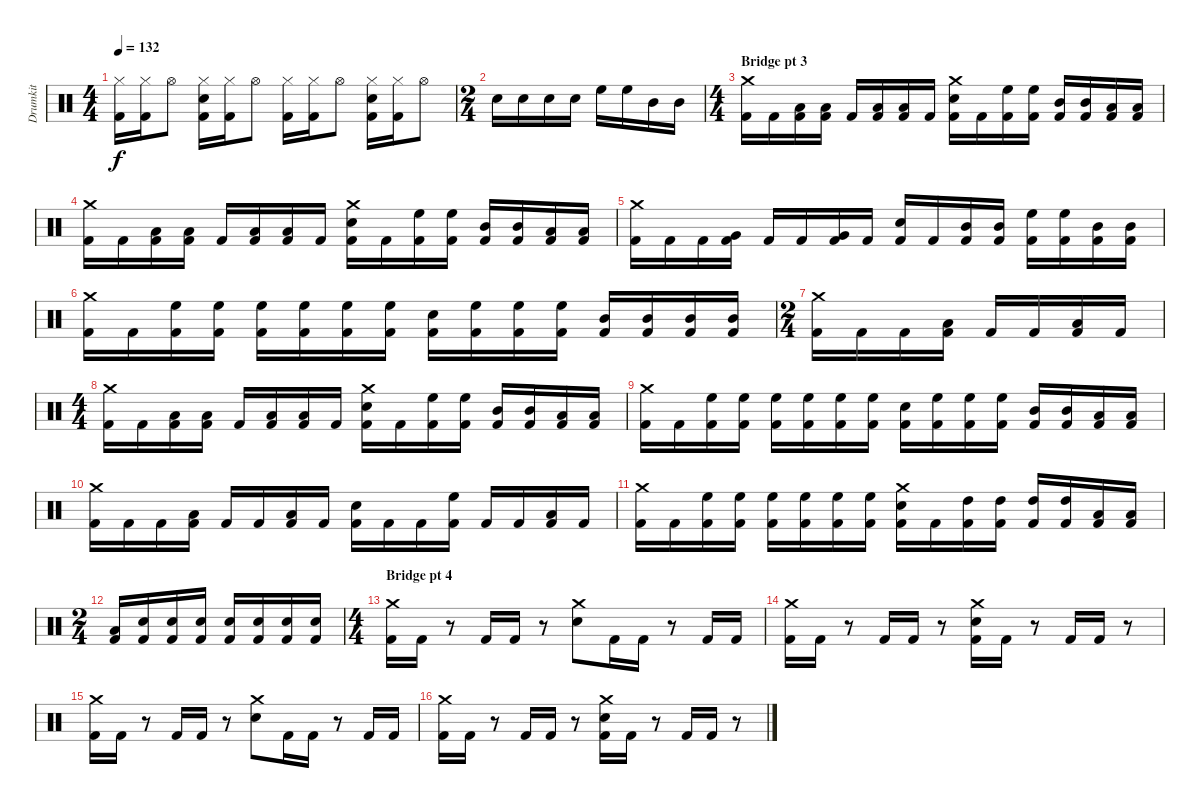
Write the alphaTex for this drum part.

\track ("Drumkit" "Drumkit") {instrument percussion}
\staff {score}
\articulation defaults
\ts (4 4)
\tempo 132
\clef neutral
\ks c
("Hi-Hat (closed)" "Kick (hit) 2").16{dy f} ("Hi-Hat (closed)" "Kick (hit) 2").16 "Hi-Hat (open)".8 ("Hi-Hat (closed)" "Snare (hit) 2" "Kick (hit) 2").16 ("Hi-Hat (closed)" "Kick (hit) 2").16 "Hi-Hat (open)".8 ("Hi-Hat (closed)" "Kick (hit) 2").16 ("Hi-Hat (closed)" "Kick (hit) 2").16 "Hi-Hat (open)".8 ("Hi-Hat (closed)" "Snare (hit) 2" "Kick (hit) 2").16 ("Hi-Hat (closed)" "Kick (hit) 2").16 "Hi-Hat (open)".8 |
\ts (2 4)
"Snare (hit) 2".16 "Snare (hit) 2".16 "Snare (hit) 2".16 "Snare (hit) 2".16 "High Floor Tom (hit)".16 "High Floor Tom (hit)".16 "Mid Tom (hit)".16 "Mid Tom (hit)".16 |
\ts (4 4)
\section ("" "Bridge pt 3")
("Crash medium (hit)" "Kick (hit) 2").16 "Kick (hit) 2".16 ("Low Tom (hit)" "Kick (hit) 2").16 ("Low Tom (hit)" "Kick (hit) 2").16 "Kick (hit) 2".16 ("Low Tom (hit)" "Kick (hit) 2").16 ("Low Tom (hit)" "Kick (hit) 2").16 "Kick (hit) 2".16 ("Crash medium (hit)" "Snare (hit) 2" "Kick (hit) 2").16 "Kick (hit) 2".16 ("High Floor Tom (hit)" "Kick (hit) 2").16 ("High Floor Tom (hit)" "Kick (hit) 2").16 ("Mid Tom (hit)" "Kick (hit) 2").16 ("Mid Tom (hit)" "Kick (hit) 2").16 ("Low Tom (hit)" "Kick (hit) 2").16 ("Low Tom (hit)" "Kick (hit) 2").16 |
("Crash medium (hit)" "Kick (hit) 2").16 "Kick (hit) 2".16 ("Low Tom (hit)" "Kick (hit) 2").16 ("Low Tom (hit)" "Kick (hit) 2").16 "Kick (hit) 2".16 ("Low Tom (hit)" "Kick (hit) 2").16 ("Low Tom (hit)" "Kick (hit) 2").16 "Kick (hit) 2".16 ("Crash medium (hit)" "Snare (hit) 2" "Kick (hit) 2").16 "Kick (hit) 2".16 ("High Floor Tom (hit)" "Kick (hit) 2").16 ("High Floor Tom (hit)" "Kick (hit) 2").16 ("Mid Tom (hit)" "Kick (hit) 2").16 ("Mid Tom (hit)" "Kick (hit) 2").16 ("Low Tom (hit)" "Kick (hit) 2").16 ("Low Tom (hit)" "Kick (hit) 2").16 |
("Crash medium (hit)" "Kick (hit) 2").16 "Kick (hit) 2".16 "Kick (hit) 2".16 ("Very Low Tom (hit)" "Kick (hit) 2").16 "Kick (hit) 2".16 "Kick (hit) 2".16 ("Very Low Tom (hit)" "Kick (hit) 2").16 "Kick (hit) 2".16 ("Snare (hit) 2" "Kick (hit) 2").16 "Kick (hit) 2".16 ("Mid Tom (hit)" "Kick (hit) 2").16 ("Mid Tom (hit)" "Kick (hit) 2").16 ("High Floor Tom (hit)" "Kick (hit) 2").16 ("High Floor Tom (hit)" "Kick (hit) 2").16 ("Mid Tom (hit)" "Kick (hit) 2").16 ("Mid Tom (hit)" "Kick (hit) 2").16 |
("Crash medium (hit)" "Kick (hit) 2").16 "Kick (hit) 2".16 ("High Floor Tom (hit)" "Kick (hit) 2").16 ("High Floor Tom (hit)" "Kick (hit) 2").16 ("High Floor Tom (hit)" "Kick (hit) 2").16 ("High Floor Tom (hit)" "Kick (hit) 2").16 ("High Floor Tom (hit)" "Kick (hit) 2").16 ("High Floor Tom (hit)" "Kick (hit) 2").16 ("Snare (hit) 2" "Kick (hit) 2").16 ("High Floor Tom (hit)" "Kick (hit) 2").16 ("High Floor Tom (hit)" "Kick (hit) 2").16 ("High Floor Tom (hit)" "Kick (hit) 2").16 ("Mid Tom (hit)" "Kick (hit) 2").16 ("Mid Tom (hit)" "Kick (hit) 2").16 ("Mid Tom (hit)" "Kick (hit) 2").16 ("Mid Tom (hit)" "Kick (hit) 2").16 |
\ts (2 4)
("Crash medium (hit)" "Kick (hit) 2").16 "Kick (hit) 2".16 "Kick (hit) 2".16 ("Low Tom (hit)" "Kick (hit) 2").16 "Kick (hit) 2".16 "Kick (hit) 2".16 ("Low Tom (hit)" "Kick (hit) 2").16 "Kick (hit) 2".16 |
\ts (4 4)
("Crash medium (hit)" "Kick (hit) 2").16 "Kick (hit) 2".16 ("Low Tom (hit)" "Kick (hit) 2").16 ("Low Tom (hit)" "Kick (hit) 2").16 "Kick (hit) 2".16 ("Low Tom (hit)" "Kick (hit) 2").16 ("Low Tom (hit)" "Kick (hit) 2").16 "Kick (hit) 2".16 ("Crash medium (hit)" "Snare (hit) 2" "Kick (hit) 2").16 "Kick (hit) 2".16 ("High Floor Tom (hit)" "Kick (hit) 2").16 ("High Floor Tom (hit)" "Kick (hit) 2").16 ("Mid Tom (hit)" "Kick (hit) 2").16 ("Mid Tom (hit)" "Kick (hit) 2").16 ("Low Tom (hit)" "Kick (hit) 2").16 ("Low Tom (hit)" "Kick (hit) 2").16 |
("Crash medium (hit)" "Kick (hit) 2").16 "Kick (hit) 2".16 ("High Floor Tom (hit)" "Kick (hit) 2").16 ("High Floor Tom (hit)" "Kick (hit) 2").16 ("High Floor Tom (hit)" "Kick (hit) 2").16 ("High Floor Tom (hit)" "Kick (hit) 2").16 ("High Floor Tom (hit)" "Kick (hit) 2").16 ("High Floor Tom (hit)" "Kick (hit) 2").16 ("Snare (hit) 2" "Kick (hit) 2").16 ("High Floor Tom (hit)" "Kick (hit) 2").16 ("High Floor Tom (hit)" "Kick (hit) 2").16 ("High Floor Tom (hit)" "Kick (hit) 2").16 ("Mid Tom (hit)" "Kick (hit) 2").16 ("Mid Tom (hit)" "Kick (hit) 2").16 ("Low Tom (hit)" "Kick (hit) 2").16 ("Low Tom (hit)" "Kick (hit) 2").16 |
("Crash medium (hit)" "Kick (hit) 2").16 "Kick (hit) 2".16 "Kick (hit) 2".16 ("Low Tom (hit)" "Kick (hit) 2").16 "Kick (hit) 2".16 "Kick (hit) 2".16 ("Low Tom (hit)" "Kick (hit) 2").16 "Kick (hit) 2".16 ("Snare (hit) 2" "Kick (hit) 2").16 "Kick (hit) 2".16 "Kick (hit) 2".16 ("High Floor Tom (hit)" "Kick (hit) 2").16 "Kick (hit) 2".16 "Kick (hit) 2".16 ("Low Tom (hit)" "Kick (hit) 2").16 "Kick (hit) 2".16 |
("Crash medium (hit)" "Kick (hit) 2").16 "Kick (hit) 2".16 ("High Floor Tom (hit)" "Kick (hit) 2").16 ("High Floor Tom (hit)" "Kick (hit) 2").16 ("High Floor Tom (hit)" "Kick (hit) 2").16 ("High Floor Tom (hit)" "Kick (hit) 2").16 ("High Floor Tom (hit)" "Kick (hit) 2").16 ("High Floor Tom (hit)" "Kick (hit) 2").16 ("Crash medium (hit)" "Snare (hit) 2" "Kick (hit) 2").16 "Kick (hit) 2".16 ("High Tom (hit)" "Kick (hit) 2").16 ("High Tom (hit)" "Kick (hit) 2").16 ("High Tom (hit)" "Kick (hit) 2").16 ("High Tom (hit)" "Kick (hit) 2").16 ("Low Tom (hit)" "Kick (hit) 2").16 ("Low Tom (hit)" "Kick (hit) 2").16 |
\ts (2 4)
("Low Tom (hit)" "Kick (hit) 2").16 ("Snare (hit) 2" "Kick (hit) 2").16 ("Snare (hit) 2" "Kick (hit) 2").16 ("Snare (hit) 2" "Kick (hit) 2").16 ("Snare (hit) 2" "Kick (hit) 2").16 ("Snare (hit) 2" "Kick (hit) 2").16 ("Snare (hit) 2" "Kick (hit) 2").16 ("Snare (hit) 2" "Kick (hit) 2").16 |
\ts (4 4)
\section ("" "Bridge pt 4")
("Crash medium (hit)" "Kick (hit) 2").16 "Kick (hit) 2".16 r.8 "Kick (hit) 2".16 "Kick (hit) 2".16 r.8 ("Crash medium (hit)" "Snare (hit) 2").8 "Kick (hit) 2".16 "Kick (hit) 2".16 r.8 "Kick (hit) 2".16 "Kick (hit) 2".16 |
("Crash medium (hit)" "Kick (hit) 2").16 "Kick (hit) 2".16 r.8 "Kick (hit) 2".16 "Kick (hit) 2".16 r.8 ("Crash medium (hit)" "Snare (hit) 2" "Kick (hit) 2").16 "Kick (hit) 2".16 r.8 "Kick (hit) 2".16 "Kick (hit) 2".16 r.8 |
("Crash medium (hit)" "Kick (hit) 2").16 "Kick (hit) 2".16 r.8 "Kick (hit) 2".16 "Kick (hit) 2".16 r.8 ("Crash medium (hit)" "Snare (hit) 2").8 "Kick (hit) 2".16 "Kick (hit) 2".16 r.8 "Kick (hit) 2".16 "Kick (hit) 2".16 |
("Crash medium (hit)" "Kick (hit) 2").16 "Kick (hit) 2".16 r.8 "Kick (hit) 2".16 "Kick (hit) 2".16 r.8 ("Crash medium (hit)" "Snare (hit) 2" "Kick (hit) 2").16 "Kick (hit) 2".16 r.8 "Kick (hit) 2".16 "Kick (hit) 2".16 r.8
